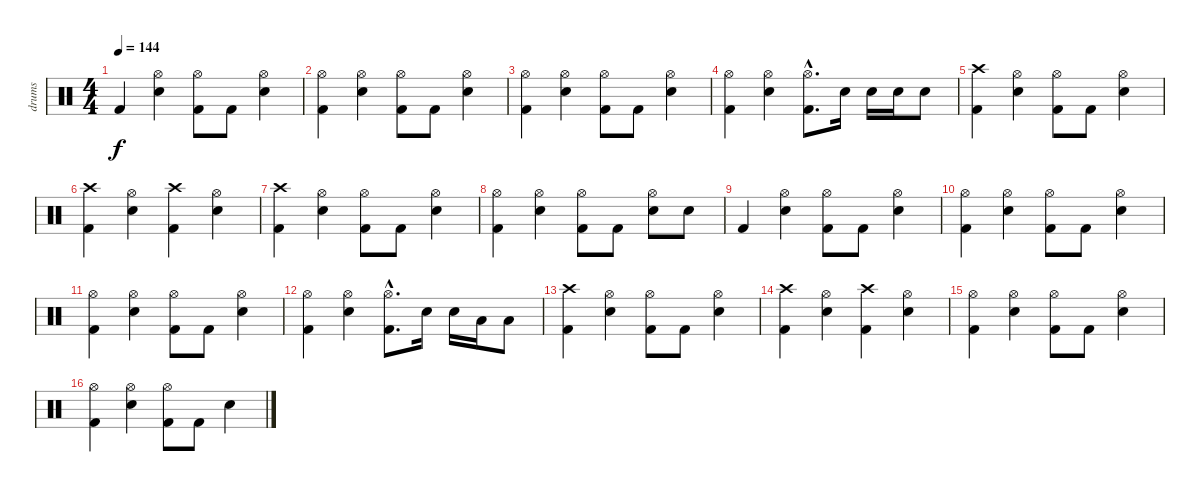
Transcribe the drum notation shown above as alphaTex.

\track ("drums" "drums") {instrument percussion}
\staff {score}
\articulation defaults
\ts (4 4)
\tempo 144
\clef neutral
\ks c "Kick (hit) 2".4{dy f}
("Hi-Hat (open)" "Electric Snare (hit)").4 ("Hi-Hat (open)" "Kick (hit) 2").8 "Kick (hit) 2".8 ("Hi-Hat (open)" "Electric Snare (hit)").4 |
("Hi-Hat (open)" "Kick (hit) 2").4 ("Hi-Hat (open)" "Electric Snare (hit)").4 ("Hi-Hat (open)" "Kick (hit) 2").8 "Kick (hit) 2".8 ("Hi-Hat (open)" "Electric Snare (hit)").4 |
("Hi-Hat (open)" "Kick (hit) 2").4 ("Hi-Hat (open)" "Electric Snare (hit)").4 ("Hi-Hat (open)" "Kick (hit) 2").8 "Kick (hit) 2".8 ("Hi-Hat (open)" "Electric Snare (hit)").4 |
("Hi-Hat (open)" "Kick (hit) 2").4 ("Hi-Hat (open)" "Electric Snare (hit)").4 ("Hi-Hat (open)"{hac} "Kick (hit) 2"{hac}).8{d} "Electric Snare (hit)".16 "Electric Snare (hit)".16 "Electric Snare (hit)".16 "Electric Snare (hit)".8 |
("Crash high (hit)" "Kick (hit) 2").4 ("Hi-Hat (open)" "Electric Snare (hit)").4 ("Hi-Hat (open)" "Kick (hit) 2").8 "Kick (hit) 2".8 ("Hi-Hat (open)" "Electric Snare (hit)").4 |
("Crash high (hit)" "Kick (hit) 2").4 ("Hi-Hat (open)" "Electric Snare (hit)").4 ("Crash high (hit)" "Kick (hit) 2").4 ("Hi-Hat (open)" "Electric Snare (hit)").4 |
("Crash high (hit)" "Kick (hit) 2").4 ("Hi-Hat (open)" "Electric Snare (hit)").4 ("Hi-Hat (open)" "Kick (hit) 2").8 "Kick (hit) 2".8 ("Hi-Hat (open)" "Electric Snare (hit)").4 |
("Hi-Hat (open)" "Kick (hit) 2").4 ("Hi-Hat (open)" "Electric Snare (hit)").4 ("Hi-Hat (open)" "Kick (hit) 2").8 "Kick (hit) 2".8 ("Hi-Hat (open)" "Electric Snare (hit)").8 "Electric Snare (hit)".8 |
"Kick (hit) 2".4 ("Hi-Hat (open)" "Electric Snare (hit)").4 ("Hi-Hat (open)" "Kick (hit) 2").8 "Kick (hit) 2".8 ("Hi-Hat (open)" "Electric Snare (hit)").4 |
("Hi-Hat (open)" "Kick (hit) 2").4 ("Hi-Hat (open)" "Electric Snare (hit)").4 ("Hi-Hat (open)" "Kick (hit) 2").8 "Kick (hit) 2".8 ("Hi-Hat (open)" "Electric Snare (hit)").4 |
("Hi-Hat (open)" "Kick (hit) 2").4 ("Hi-Hat (open)" "Electric Snare (hit)").4 ("Hi-Hat (open)" "Kick (hit) 2").8 "Kick (hit) 2".8 ("Hi-Hat (open)" "Electric Snare (hit)").4 |
("Hi-Hat (open)" "Kick (hit) 2").4 ("Hi-Hat (open)" "Electric Snare (hit)").4 ("Hi-Hat (open)"{hac} "Kick (hit) 2"{hac}).8{d} "Electric Snare (hit)".16 "Electric Snare (hit)".16 "Low Tom (hit)".16 "Low Tom (hit)".8 |
("Crash high (hit)" "Kick (hit) 2").4 ("Hi-Hat (open)" "Electric Snare (hit)").4 ("Hi-Hat (open)" "Kick (hit) 2").8 "Kick (hit) 2".8 ("Hi-Hat (open)" "Electric Snare (hit)").4 |
("Crash high (hit)" "Kick (hit) 2").4 ("Hi-Hat (open)" "Electric Snare (hit)").4 ("Crash high (hit)" "Kick (hit) 2").4 ("Hi-Hat (open)" "Electric Snare (hit)").4 |
("Hi-Hat (open)" "Kick (hit) 2").4 ("Hi-Hat (open)" "Electric Snare (hit)").4 ("Hi-Hat (open)" "Kick (hit) 2").8 "Kick (hit) 2".8 ("Hi-Hat (open)" "Electric Snare (hit)").4 |
("Hi-Hat (open)" "Kick (hit) 2").4 ("Hi-Hat (open)" "Electric Snare (hit)").4 ("Hi-Hat (open)" "Kick (hit) 2").8 "Kick (hit) 2".8 "Electric Snare (hit)".4
